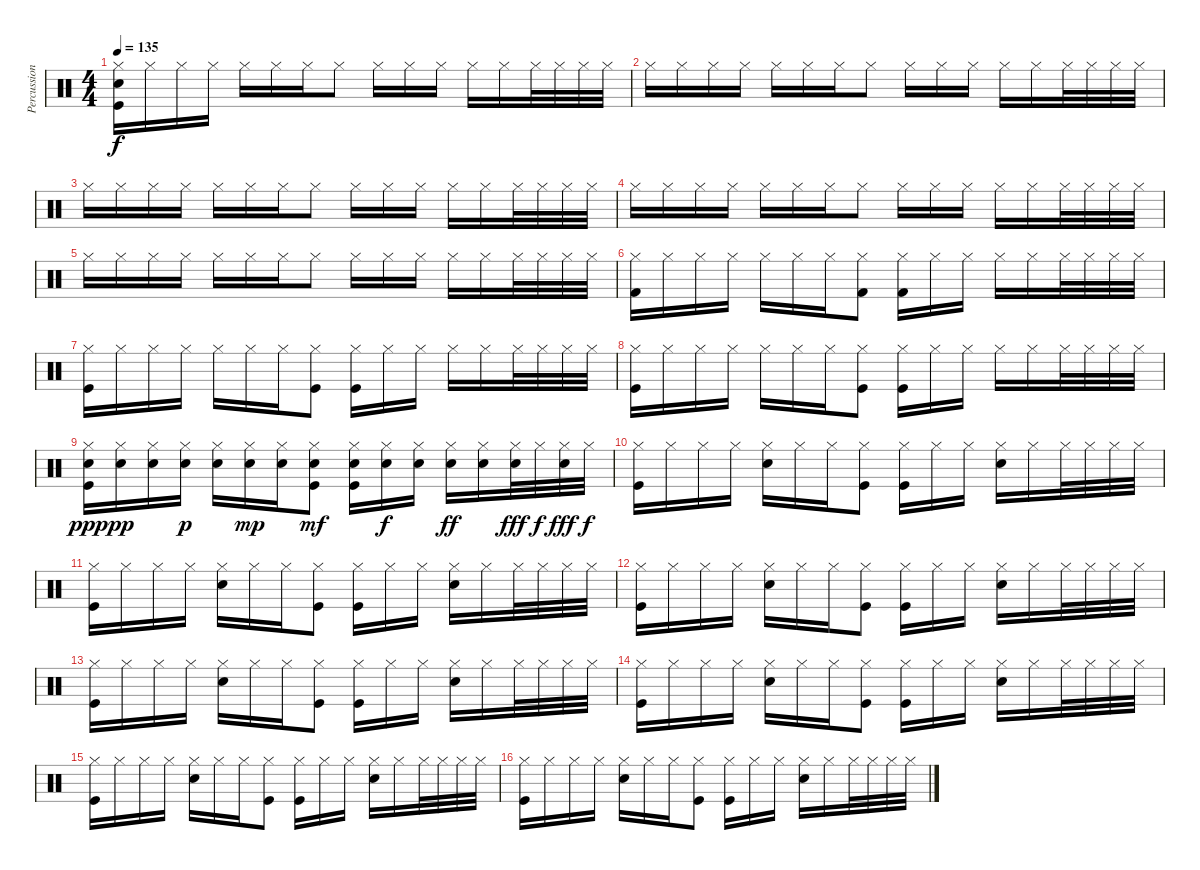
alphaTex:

\track ("Percussion" "Percussion") {instrument percussion}
\staff {score}
\articulation defaults
\ts (4 4)
\tempo 135
\clef neutral
\ks c
("Hi-Hat (closed)" "Snare (hit) 2" "Kick (hit)").16{dy f} "Hi-Hat (closed)".16 "Hi-Hat (closed)".16 "Hi-Hat (closed)".16 "Hi-Hat (closed)".16 "Hi-Hat (closed)".16 "Hi-Hat (closed)".16 "Hi-Hat (closed)".8 "Hi-Hat (closed)".16 "Hi-Hat (closed)".16 "Hi-Hat (closed)".16 "Hi-Hat (closed)".16 "Hi-Hat (closed)".16 "Hi-Hat (closed)".32 "Hi-Hat (closed)".32 "Hi-Hat (closed)".32 "Hi-Hat (closed)".32 |
"Hi-Hat (closed)".16 "Hi-Hat (closed)".16 "Hi-Hat (closed)".16 "Hi-Hat (closed)".16 "Hi-Hat (closed)".16 "Hi-Hat (closed)".16 "Hi-Hat (closed)".16 "Hi-Hat (closed)".8 "Hi-Hat (closed)".16 "Hi-Hat (closed)".16 "Hi-Hat (closed)".16 "Hi-Hat (closed)".16 "Hi-Hat (closed)".16 "Hi-Hat (closed)".32 "Hi-Hat (closed)".32 "Hi-Hat (closed)".32 "Hi-Hat (closed)".32 |
"Hi-Hat (closed)".16 "Hi-Hat (closed)".16 "Hi-Hat (closed)".16 "Hi-Hat (closed)".16 "Hi-Hat (closed)".16 "Hi-Hat (closed)".16 "Hi-Hat (closed)".16 "Hi-Hat (closed)".8 "Hi-Hat (closed)".16 "Hi-Hat (closed)".16 "Hi-Hat (closed)".16 "Hi-Hat (closed)".16 "Hi-Hat (closed)".16 "Hi-Hat (closed)".32 "Hi-Hat (closed)".32 "Hi-Hat (closed)".32 "Hi-Hat (closed)".32 |
"Hi-Hat (closed)".16 "Hi-Hat (closed)".16 "Hi-Hat (closed)".16 "Hi-Hat (closed)".16 "Hi-Hat (closed)".16 "Hi-Hat (closed)".16 "Hi-Hat (closed)".16 "Hi-Hat (closed)".8 "Hi-Hat (closed)".16 "Hi-Hat (closed)".16 "Hi-Hat (closed)".16 "Hi-Hat (closed)".16 "Hi-Hat (closed)".16 "Hi-Hat (closed)".32 "Hi-Hat (closed)".32 "Hi-Hat (closed)".32 "Hi-Hat (closed)".32 |
"Hi-Hat (closed)".16 "Hi-Hat (closed)".16 "Hi-Hat (closed)".16 "Hi-Hat (closed)".16 "Hi-Hat (closed)".16 "Hi-Hat (closed)".16 "Hi-Hat (closed)".16 "Hi-Hat (closed)".8 "Hi-Hat (closed)".16 "Hi-Hat (closed)".16 "Hi-Hat (closed)".16 "Hi-Hat (closed)".16 "Hi-Hat (closed)".16 "Hi-Hat (closed)".32 "Hi-Hat (closed)".32 "Hi-Hat (closed)".32 "Hi-Hat (closed)".32 |
("Hi-Hat (closed)" "Kick (hit) 2").16 "Hi-Hat (closed)".16 "Hi-Hat (closed)".16 "Hi-Hat (closed)".16 "Hi-Hat (closed)".16 "Hi-Hat (closed)".16 "Hi-Hat (closed)".16 ("Hi-Hat (closed)" "Kick (hit) 2").8 ("Hi-Hat (closed)" "Kick (hit) 2").16 "Hi-Hat (closed)".16 "Hi-Hat (closed)".16 "Hi-Hat (closed)".16 "Hi-Hat (closed)".16 "Hi-Hat (closed)".32 "Hi-Hat (closed)".32 "Hi-Hat (closed)".32 "Hi-Hat (closed)".32 |
("Hi-Hat (closed)" "Kick (hit)").16 "Hi-Hat (closed)".16 "Hi-Hat (closed)".16 "Hi-Hat (closed)".16 "Hi-Hat (closed)".16 "Hi-Hat (closed)".16 "Hi-Hat (closed)".16 ("Hi-Hat (closed)" "Kick (hit)").8 ("Hi-Hat (closed)" "Kick (hit)").16 "Hi-Hat (closed)".16 "Hi-Hat (closed)".16 "Hi-Hat (closed)".16 "Hi-Hat (closed)".16 "Hi-Hat (closed)".32 "Hi-Hat (closed)".32 "Hi-Hat (closed)".32 "Hi-Hat (closed)".32 |
("Hi-Hat (closed)" "Kick (hit)").16 "Hi-Hat (closed)".16 "Hi-Hat (closed)".16 "Hi-Hat (closed)".16 "Hi-Hat (closed)".16 "Hi-Hat (closed)".16 "Hi-Hat (closed)".16 ("Hi-Hat (closed)" "Kick (hit)").8 ("Hi-Hat (closed)" "Kick (hit)").16 "Hi-Hat (closed)".16 "Hi-Hat (closed)".16 "Hi-Hat (closed)".16 "Hi-Hat (closed)".16 "Hi-Hat (closed)".32 "Hi-Hat (closed)".32 "Hi-Hat (closed)".32 "Hi-Hat (closed)".32 |
("Hi-Hat (closed)" "Snare (hit) 2" "Kick (hit)").16{dy ppp} ("Hi-Hat (closed)" "Snare (hit) 2").16{dy pp} ("Hi-Hat (closed)" "Snare (hit) 2").16 ("Hi-Hat (closed)" "Snare (hit) 2").16{dy p} ("Hi-Hat (closed)" "Snare (hit) 2").16 ("Hi-Hat (closed)" "Snare (hit) 2").16{dy mp} ("Hi-Hat (closed)" "Snare (hit) 2").16 ("Hi-Hat (closed)" "Snare (hit) 2" "Kick (hit)").8{dy mf} ("Hi-Hat (closed)" "Snare (hit) 2" "Kick (hit)").16 ("Hi-Hat (closed)" "Snare (hit) 2").16{dy f} ("Hi-Hat (closed)" "Snare (hit) 2").16 ("Hi-Hat (closed)" "Snare (hit) 2").16{dy ff} ("Hi-Hat (closed)" "Snare (hit) 2").16 ("Hi-Hat (closed)" "Snare (hit) 2").32{dy fff} "Hi-Hat (closed)".32{dy f} ("Hi-Hat (closed)" "Snare (hit) 2").32{dy fff} "Hi-Hat (closed)".32{dy f} |
("Hi-Hat (closed)" "Kick (hit)").16 "Hi-Hat (closed)".16 "Hi-Hat (closed)".16 "Hi-Hat (closed)".16 ("Hi-Hat (closed)" "Snare (hit) 2").16 "Hi-Hat (closed)".16 "Hi-Hat (closed)".16 ("Hi-Hat (closed)" "Kick (hit)").8 ("Hi-Hat (closed)" "Kick (hit)").16 "Hi-Hat (closed)".16 "Hi-Hat (closed)".16 ("Hi-Hat (closed)" "Snare (hit) 2").16 "Hi-Hat (closed)".16 "Hi-Hat (closed)".32 "Hi-Hat (closed)".32 "Hi-Hat (closed)".32 "Hi-Hat (closed)".32 |
("Hi-Hat (closed)" "Kick (hit)").16 "Hi-Hat (closed)".16 "Hi-Hat (closed)".16 "Hi-Hat (closed)".16 ("Hi-Hat (closed)" "Snare (hit) 2").16 "Hi-Hat (closed)".16 "Hi-Hat (closed)".16 ("Hi-Hat (closed)" "Kick (hit)").8 ("Hi-Hat (closed)" "Kick (hit)").16 "Hi-Hat (closed)".16 "Hi-Hat (closed)".16 ("Hi-Hat (closed)" "Snare (hit) 2").16 "Hi-Hat (closed)".16 "Hi-Hat (closed)".32 "Hi-Hat (closed)".32 "Hi-Hat (closed)".32 "Hi-Hat (closed)".32 |
("Hi-Hat (closed)" "Kick (hit)").16 "Hi-Hat (closed)".16 "Hi-Hat (closed)".16 "Hi-Hat (closed)".16 ("Hi-Hat (closed)" "Snare (hit) 2").16 "Hi-Hat (closed)".16 "Hi-Hat (closed)".16 ("Hi-Hat (closed)" "Kick (hit)").8 ("Hi-Hat (closed)" "Kick (hit)").16 "Hi-Hat (closed)".16 "Hi-Hat (closed)".16 ("Hi-Hat (closed)" "Snare (hit) 2").16 "Hi-Hat (closed)".16 "Hi-Hat (closed)".32 "Hi-Hat (closed)".32 "Hi-Hat (closed)".32 "Hi-Hat (closed)".32 |
("Hi-Hat (closed)" "Kick (hit)").16 "Hi-Hat (closed)".16 "Hi-Hat (closed)".16 "Hi-Hat (closed)".16 ("Hi-Hat (closed)" "Snare (hit) 2").16 "Hi-Hat (closed)".16 "Hi-Hat (closed)".16 ("Hi-Hat (closed)" "Kick (hit)").8 ("Hi-Hat (closed)" "Kick (hit)").16 "Hi-Hat (closed)".16 "Hi-Hat (closed)".16 ("Hi-Hat (closed)" "Snare (hit) 2").16 "Hi-Hat (closed)".16 "Hi-Hat (closed)".32 "Hi-Hat (closed)".32 "Hi-Hat (closed)".32 "Hi-Hat (closed)".32 |
("Hi-Hat (closed)" "Kick (hit)").16 "Hi-Hat (closed)".16 "Hi-Hat (closed)".16 "Hi-Hat (closed)".16 ("Hi-Hat (closed)" "Snare (hit) 2").16 "Hi-Hat (closed)".16 "Hi-Hat (closed)".16 ("Hi-Hat (closed)" "Kick (hit)").8 ("Hi-Hat (closed)" "Kick (hit)").16 "Hi-Hat (closed)".16 "Hi-Hat (closed)".16 ("Hi-Hat (closed)" "Snare (hit) 2").16 "Hi-Hat (closed)".16 "Hi-Hat (closed)".32 "Hi-Hat (closed)".32 "Hi-Hat (closed)".32 "Hi-Hat (closed)".32 |
("Hi-Hat (closed)" "Kick (hit)").16 "Hi-Hat (closed)".16 "Hi-Hat (closed)".16 "Hi-Hat (closed)".16 ("Hi-Hat (closed)" "Snare (hit) 2").16 "Hi-Hat (closed)".16 "Hi-Hat (closed)".16 ("Hi-Hat (closed)" "Kick (hit)").8 ("Hi-Hat (closed)" "Kick (hit)").16 "Hi-Hat (closed)".16 "Hi-Hat (closed)".16 ("Hi-Hat (closed)" "Snare (hit) 2").16 "Hi-Hat (closed)".16 "Hi-Hat (closed)".32 "Hi-Hat (closed)".32 "Hi-Hat (closed)".32 "Hi-Hat (closed)".32 |
("Hi-Hat (closed)" "Kick (hit)").16 "Hi-Hat (closed)".16 "Hi-Hat (closed)".16 "Hi-Hat (closed)".16 ("Hi-Hat (closed)" "Snare (hit) 2").16 "Hi-Hat (closed)".16 "Hi-Hat (closed)".16 ("Hi-Hat (closed)" "Kick (hit)").8 ("Hi-Hat (closed)" "Kick (hit)").16 "Hi-Hat (closed)".16 "Hi-Hat (closed)".16 ("Hi-Hat (closed)" "Snare (hit) 2").16 "Hi-Hat (closed)".16 "Hi-Hat (closed)".32 "Hi-Hat (closed)".32 "Hi-Hat (closed)".32 "Hi-Hat (closed)".32
